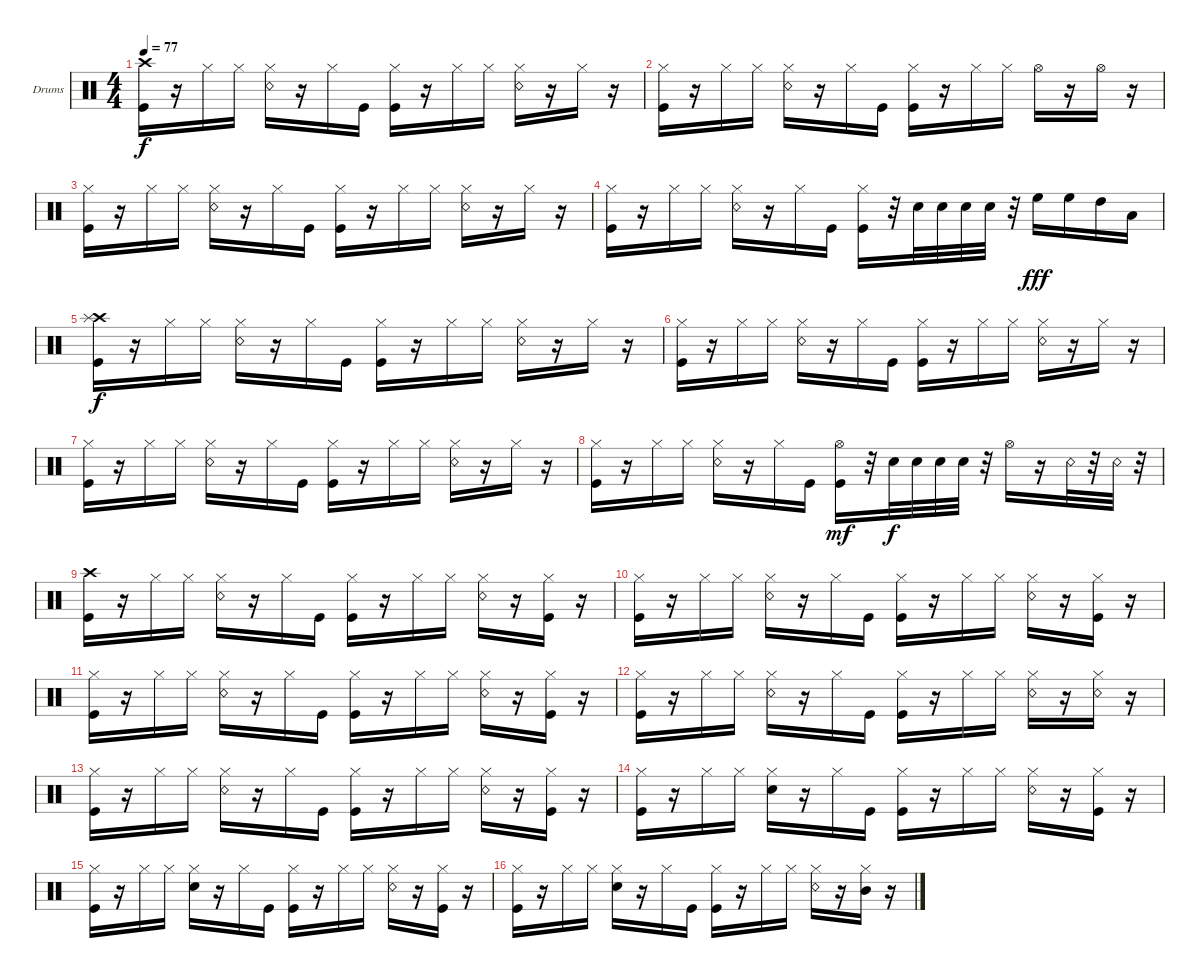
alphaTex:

\defaultSystemsLayout 4
\bracketExtendMode groupsimilarinstruments
\firstSystemTrackNameOrientation horizontal
\otherSystemsTrackNameOrientation horizontal
\track ("Drumkit" "Drums") {instrument percussion}
\staff {score}
\articulation defaults
\ts (4 4)
\tempo 77
\clef neutral
\scale
0.333333
\ks c
("Kick (hit)" "Crash high (hit)").16{dy f} r.16 "Hi-Hat (closed)".16 "Hi-Hat (closed)".16 ("Snare (rim shot)" "Hi-Hat (closed)").16 r.16 "Hi-Hat (closed)".16 "Kick (hit)".16 ("Kick (hit)" "Hi-Hat (closed)").16 r.16 "Hi-Hat (closed)".16 "Hi-Hat (closed)".16 ("Snare (rim shot)" "Hi-Hat (closed)").16 r.16 "Hi-Hat (closed)".16 r.16 |
\scale
0.333333 ("Kick (hit)" "Hi-Hat (closed)").16 r.16 "Hi-Hat (closed)".16 "Hi-Hat (closed)".16 ("Snare (rim shot)" "Hi-Hat (closed)").16 r.16 "Hi-Hat (closed)".16 "Kick (hit)".16 ("Kick (hit)" "Hi-Hat (closed)").16 r.16 "Hi-Hat (closed)".16 "Hi-Hat (closed)".16 "Hi-Hat (open)".16 r.16 "Hi-Hat (open)".16 r.16 |
\scale
0.333333 ("Kick (hit)" "Hi-Hat (closed)").16 r.16 "Hi-Hat (closed)".16 "Hi-Hat (closed)".16 ("Snare (rim shot)" "Hi-Hat (closed)").16 r.16 "Hi-Hat (closed)".16 "Kick (hit)".16 ("Kick (hit)" "Hi-Hat (closed)").16 r.16 "Hi-Hat (closed)".16 "Hi-Hat (closed)".16 ("Snare (rim shot)" "Hi-Hat (closed)").16 r.16 "Hi-Hat (closed)".16 r.16 |
\scale
0.333333 ("Kick (hit)" "Hi-Hat (closed)").16 r.16 "Hi-Hat (closed)".16 "Hi-Hat (closed)".16 ("Snare (rim shot)" "Hi-Hat (closed)").16 r.16 "Hi-Hat (closed)".16 "Kick (hit)".16 ("Kick (hit)" "Hi-Hat (closed)").16 r.32 "Snare (hit) 2".32 "Snare (hit) 2".32 "Snare (hit) 2".32 "Snare (hit) 2".32 r.32 "High Floor Tom (hit)".16{dy fff} "High Floor Tom (hit)".16 "High Tom (hit)".16 "Low Tom (hit)".16 |
\scale
0.333333 ("Kick (hit)" "Crash high (hit)" "Splash (hit)").16{dy f} r.16 "Hi-Hat (closed)".16 "Hi-Hat (closed)".16 ("Snare (rim shot)" "Hi-Hat (closed)").16 r.16 "Hi-Hat (closed)".16 "Kick (hit)".16 ("Kick (hit)" "Hi-Hat (closed)").16 r.16 "Hi-Hat (closed)".16 "Hi-Hat (closed)".16 ("Snare (rim shot)" "Hi-Hat (closed)").16 r.16 "Hi-Hat (closed)".16 r.16 |
\scale
0.333333 ("Kick (hit)" "Hi-Hat (closed)").16 r.16 "Hi-Hat (closed)".16 "Hi-Hat (closed)".16 ("Snare (rim shot)" "Hi-Hat (closed)").16 r.16 "Hi-Hat (closed)".16 "Kick (hit)".16 ("Kick (hit)" "Hi-Hat (closed)").16 r.16 "Hi-Hat (closed)".16 "Hi-Hat (closed)".16 ("Snare (rim shot)" "Hi-Hat (closed)").16 r.16 "Hi-Hat (closed)".16 r.16 |
\scale
0.333333 ("Kick (hit)" "Hi-Hat (closed)").16 r.16 "Hi-Hat (closed)".16 "Hi-Hat (closed)".16 ("Snare (rim shot)" "Hi-Hat (closed)").16 r.16 "Hi-Hat (closed)".16 "Kick (hit)".16 ("Kick (hit)" "Hi-Hat (closed)").16 r.16 "Hi-Hat (closed)".16 "Hi-Hat (closed)".16 ("Snare (rim shot)" "Hi-Hat (closed)").16 r.16 "Hi-Hat (closed)".16 r.16 |
\scale
0.333333 ("Kick (hit)" "Hi-Hat (closed)").16 r.16 "Hi-Hat (closed)".16 "Hi-Hat (closed)".16 ("Snare (rim shot)" "Hi-Hat (closed)").16 r.16 "Hi-Hat (closed)".16 "Kick (hit)".16 ("Kick (hit)" "Hi-Hat (open)").16{dy mf} r.32 "Snare (hit) 2".32{dy f} "Snare (hit) 2".32 "Snare (hit) 2".32 "Snare (hit) 2".32 r.32 "Hi-Hat (open)".16 r.16 "Snare (rim shot)".32 r.32 "Snare (rim shot)".32 r.32 |
\scale
0.333333 ("Kick (hit)" "Crash high (hit)").16 r.16 "Hi-Hat (closed)".16 "Hi-Hat (closed)".16 ("Snare (rim shot)" "Hi-Hat (closed)").16 r.16 "Hi-Hat (closed)".16 "Kick (hit)".16 ("Kick (hit)" "Hi-Hat (closed)").16 r.16 "Hi-Hat (closed)".16 "Hi-Hat (closed)".16 ("Snare (rim shot)" "Hi-Hat (closed)").16 r.16 ("Kick (hit)" "Hi-Hat (closed)").16 r.16 |
\scale
0.333333 ("Kick (hit)" "Hi-Hat (closed)").16 r.16 "Hi-Hat (closed)".16 "Hi-Hat (closed)".16 ("Snare (rim shot)" "Hi-Hat (closed)").16 r.16 "Hi-Hat (closed)".16 "Kick (hit)".16 ("Kick (hit)" "Hi-Hat (closed)").16 r.16 "Hi-Hat (closed)".16 "Hi-Hat (closed)".16 ("Snare (rim shot)" "Hi-Hat (closed)").16 r.16 ("Kick (hit)" "Hi-Hat (closed)").16 r.16 |
\scale
0.333333 ("Kick (hit)" "Hi-Hat (closed)").16 r.16 "Hi-Hat (closed)".16 "Hi-Hat (closed)".16 ("Snare (rim shot)" "Hi-Hat (closed)").16 r.16 "Hi-Hat (closed)".16 "Kick (hit)".16 ("Kick (hit)" "Hi-Hat (closed)").16 r.16 "Hi-Hat (closed)".16 "Hi-Hat (closed)".16 ("Snare (rim shot)" "Hi-Hat (closed)").16 r.16 ("Kick (hit)" "Hi-Hat (closed)").16 r.16 |
\scale
0.333333 ("Kick (hit)" "Hi-Hat (closed)").16 r.16 "Hi-Hat (closed)".16 "Hi-Hat (closed)".16 ("Snare (rim shot)" "Hi-Hat (closed)").16 r.16 "Hi-Hat (closed)".16 "Kick (hit)".16 ("Kick (hit)" "Hi-Hat (closed)").16 r.16 "Hi-Hat (closed)".16 "Hi-Hat (closed)".16 ("Snare (rim shot)" "Hi-Hat (closed)").16 r.16 ("Snare (rim shot)" "Hi-Hat (closed)").16 r.16 |
\scale
0.333333 ("Kick (hit)" "Hi-Hat (closed)").16 r.16 "Hi-Hat (closed)".16 "Hi-Hat (closed)".16 ("Snare (rim shot)" "Hi-Hat (closed)").16 r.16 "Hi-Hat (closed)".16 "Kick (hit)".16 ("Kick (hit)" "Hi-Hat (closed)").16 r.16 "Hi-Hat (closed)".16 "Hi-Hat (closed)".16 ("Snare (rim shot)" "Hi-Hat (closed)").16 r.16 ("Kick (hit)" "Hi-Hat (closed)").16 r.16 |
\scale
0.333333 ("Kick (hit)" "Hi-Hat (closed)").16 r.16 "Hi-Hat (closed)".16 "Hi-Hat (closed)".16 ("Snare (hit) 2" "Hi-Hat (closed)").16 r.16 "Hi-Hat (closed)".16 "Kick (hit)".16 ("Kick (hit)" "Hi-Hat (closed)").16 r.16 "Hi-Hat (closed)".16 "Hi-Hat (closed)".16 ("Snare (rim shot)" "Hi-Hat (closed)").16 r.16 ("Kick (hit)" "Hi-Hat (closed)").16 r.16 |
\scale
0.333333 ("Kick (hit)" "Hi-Hat (closed)").16 r.16 "Hi-Hat (closed)".16 "Hi-Hat (closed)".16 ("Snare (hit) 2" "Hi-Hat (closed)").16 r.16 "Hi-Hat (closed)".16 "Kick (hit)".16 ("Kick (hit)" "Hi-Hat (closed)").16 r.16 "Hi-Hat (closed)".16 "Hi-Hat (closed)".16 ("Snare (rim shot)" "Hi-Hat (closed)").16 r.16 ("Kick (hit)" "Hi-Hat (closed)").16 r.16 |
\scale
0.333333 ("Kick (hit)" "Hi-Hat (closed)").16 r.16 "Hi-Hat (closed)".16 "Hi-Hat (closed)".16 ("Snare (hit) 2" "Hi-Hat (closed)").16 r.16 "Hi-Hat (closed)".16 "Kick (hit)".16 ("Kick (hit)" "Hi-Hat (closed)").16 r.16 "Hi-Hat (closed)".16 "Hi-Hat (closed)".16 ("Snare (rim shot)" "Hi-Hat (closed)").16 r.16 ("Mid Tom (hit)" "Hi-Hat (closed)").16 r.16
